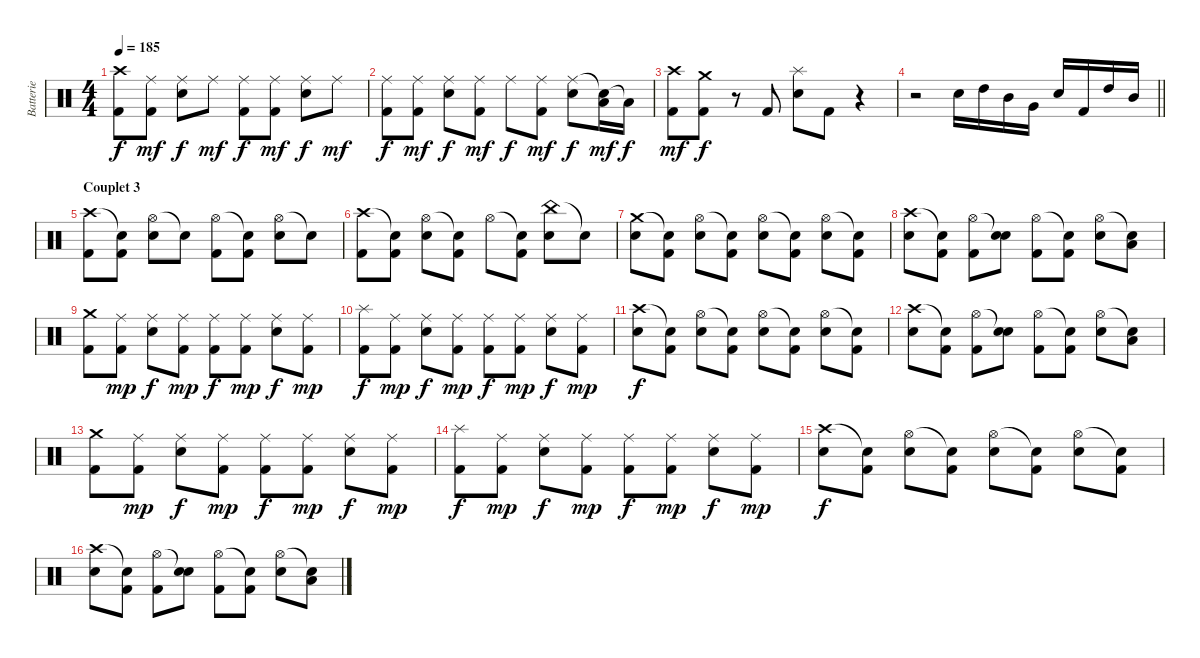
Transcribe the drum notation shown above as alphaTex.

\track ("Batterie" "Batterie") {instrument percussion}
\staff {score}
\articulation defaults
\ts (4 4)
\tempo 185
\clef neutral
\ks c
("Crash high (hit)" "Kick (hit) 2").8{dy f} ("Ride (middle)" "Kick (hit) 2").8{dy mf} ("Ride (middle)" "Electric Snare (hit)").8{dy f} "Ride (middle)".8{dy mf} ("Ride (middle)" "Kick (hit) 2").8{dy f} ("Ride (middle)" "Kick (hit) 2").8{dy mf} ("Ride (middle)" "Electric Snare (hit)").8{dy f} "Ride (middle)".8{dy mf} |
("Ride (middle)" "Kick (hit) 2").8{dy f} ("Ride (middle)" "Kick (hit) 2").8{dy mf} ("Ride (middle)" "Electric Snare (hit)").8{dy f} ("Ride (middle)" "Kick (hit) 2").8{dy mf} "Ride (middle)".8{dy f} ("Ride (middle)" "Kick (hit) 2").8{dy mf} ("Ride (middle)" "Electric Snare (hit)").8{dy f} ("Snare (hit)"{t} "Low Floor Tom (hit)").16{dy mf} "Low Floor Tom (hit)"{t}.16{dy f} |
("Crash high (hit)" "Kick (hit) 2").8{dy mf} ("Crash medium (hit)" "Kick (hit) 2").8{dy f} r.8 "Kick (hit) 2".8 ("Splash (hit)" "Electric Snare (hit)").8 "Kick (hit) 2".8 r.4 |
\barLineRight lightlight
r.2 "Electric Snare (hit)".16 "High Tom (hit)".16 "Mid Tom (hit)".16 "Very Low Tom (hit)".16 "Electric Snare (hit)".16 "Kick (hit) 2".16 "High Tom (hit)".16 "Mid Tom (hit)".16 |
\section ("" "Couplet 3")
("Crash high (hit)" "Kick (hit) 2").8 ("Snare (hit)"{t} "Kick (hit) 2").8 ("Hi-Hat (open)" "Electric Snare (hit)").8 "Snare (hit)"{t}.8 ("Hi-Hat (open)" "Kick (hit) 2").8 ("Snare (hit)"{t} "Kick (hit) 2").8 ("Hi-Hat (open)" "Electric Snare (hit)").8 "Snare (hit)"{t}.8 |
("Crash high (hit)" "Kick (hit) 2").8 ("Snare (hit)"{t} "Kick (hit) 2").8 ("Hi-Hat (open)" "Electric Snare (hit)").8 ("Snare (hit)"{t} "Kick (hit) 2").8 "Hi-Hat (open)".8 ("Snare (hit)"{t} "Kick (hit) 2").8 ("China (hit)" "Electric Snare (hit)").8 "Snare (hit)"{t}.8 |
("Crash medium (hit)" "Electric Snare (hit)").8 ("Snare (hit)"{t} "Kick (hit) 2").8 ("Hi-Hat (open)" "Electric Snare (hit)").8 ("Snare (hit)"{t} "Kick (hit) 2").8 ("Hi-Hat (open)" "Electric Snare (hit)").8 ("Snare (hit)"{t} "Kick (hit) 2").8 ("Hi-Hat (open)" "Electric Snare (hit)").8 ("Snare (hit)"{t} "Kick (hit) 2").8 |
("Crash high (hit)" "Electric Snare (hit)").8 ("Snare (hit)"{t} "Kick (hit) 2").8 ("Hi-Hat (open)" "Kick (hit) 2").8 ("Snare (hit)"{t} "Electric Snare (hit)").8 ("Hi-Hat (open)" "Kick (hit) 2").8 ("Snare (hit)"{t} "Kick (hit) 2").8 ("Hi-Hat (open)" "Electric Snare (hit)").8 ("Snare (hit)"{t} "Low Floor Tom (hit)").8 |
("Crash medium (hit)" "Kick (hit) 2").8 ("Ride (middle)" "Kick (hit) 2").8{dy mp} ("Ride (middle)" "Electric Snare (hit)").8{dy f} ("Ride (middle)" "Kick (hit) 2").8{dy mp} ("Ride (middle)" "Kick (hit) 2").8{dy f} ("Ride (middle)" "Kick (hit) 2").8{dy mp} ("Ride (middle)" "Electric Snare (hit)").8{dy f} ("Ride (middle)" "Kick (hit) 2").8{dy mp} |
("Splash (hit)" "Kick (hit) 2").8{dy f} ("Ride (middle)" "Kick (hit) 2").8{dy mp} ("Ride (middle)" "Electric Snare (hit)").8{dy f} ("Ride (middle)" "Kick (hit) 2").8{dy mp} ("Ride (middle)" "Kick (hit) 2").8{dy f} ("Ride (middle)" "Kick (hit) 2").8{dy mp} ("Ride (middle)" "Electric Snare (hit)").8{dy f} ("Ride (middle)" "Kick (hit) 2").8{dy mp} |
("Crash high (hit)" "Electric Snare (hit)").8{dy f} ("Snare (hit)"{t} "Kick (hit) 2").8 ("Hi-Hat (open)" "Electric Snare (hit)").8 ("Snare (hit)"{t} "Kick (hit) 2").8 ("Hi-Hat (open)" "Electric Snare (hit)").8 ("Snare (hit)"{t} "Kick (hit) 2").8 ("Hi-Hat (open)" "Electric Snare (hit)").8 ("Snare (hit)"{t} "Kick (hit) 2").8 |
("Crash high (hit)" "Electric Snare (hit)").8 ("Snare (hit)"{t} "Kick (hit) 2").8 ("Hi-Hat (open)" "Kick (hit) 2").8 ("Snare (hit)"{t} "Electric Snare (hit)").8 ("Hi-Hat (open)" "Kick (hit) 2").8 ("Snare (hit)"{t} "Kick (hit) 2").8 ("Hi-Hat (open)" "Electric Snare (hit)").8 ("Snare (hit)"{t} "Low Floor Tom (hit)").8 |
("Crash medium (hit)" "Kick (hit) 2").8 ("Ride (middle)" "Kick (hit) 2").8{dy mp} ("Ride (middle)" "Electric Snare (hit)").8{dy f} ("Ride (middle)" "Kick (hit) 2").8{dy mp} ("Ride (middle)" "Kick (hit) 2").8{dy f} ("Ride (middle)" "Kick (hit) 2").8{dy mp} ("Ride (middle)" "Electric Snare (hit)").8{dy f} ("Ride (middle)" "Kick (hit) 2").8{dy mp} |
("Splash (hit)" "Kick (hit) 2").8{dy f} ("Ride (middle)" "Kick (hit) 2").8{dy mp} ("Ride (middle)" "Electric Snare (hit)").8{dy f} ("Ride (middle)" "Kick (hit) 2").8{dy mp} ("Ride (middle)" "Kick (hit) 2").8{dy f} ("Ride (middle)" "Kick (hit) 2").8{dy mp} ("Ride (middle)" "Electric Snare (hit)").8{dy f} ("Ride (middle)" "Kick (hit) 2").8{dy mp} |
("Crash high (hit)" "Electric Snare (hit)").8{dy f} ("Snare (hit)"{t} "Kick (hit) 2").8 ("Hi-Hat (open)" "Electric Snare (hit)").8 ("Snare (hit)"{t} "Kick (hit) 2").8 ("Hi-Hat (open)" "Electric Snare (hit)").8 ("Snare (hit)"{t} "Kick (hit) 2").8 ("Hi-Hat (open)" "Electric Snare (hit)").8 ("Snare (hit)"{t} "Kick (hit) 2").8 |
("Crash high (hit)" "Electric Snare (hit)").8 ("Snare (hit)"{t} "Kick (hit) 2").8 ("Hi-Hat (open)" "Kick (hit) 2").8 ("Snare (hit)"{t} "Electric Snare (hit)").8 ("Hi-Hat (open)" "Kick (hit) 2").8 ("Snare (hit)"{t} "Kick (hit) 2").8 ("Hi-Hat (open)" "Electric Snare (hit)").8 ("Snare (hit)"{t} "Low Floor Tom (hit)").8
